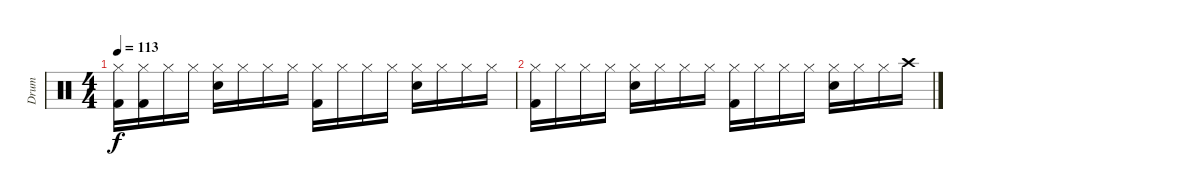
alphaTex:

\track ("Drum" "Drum") {instrument percussion}
\staff {score}
\articulation defaults
\ts (4 4)
\tempo 113
\clef neutral
\ks c
("Hi-Hat (closed)" "Kick (hit) 2").16{dy f} ("Hi-Hat (closed)" "Kick (hit) 2").16 "Hi-Hat (closed)".16 "Hi-Hat (closed)".16 ("Hi-Hat (closed)" "Snare (hit) 2").16 "Hi-Hat (closed)".16 "Hi-Hat (closed)".16 "Hi-Hat (closed)".16 ("Hi-Hat (closed)" "Kick (hit) 2").16 "Hi-Hat (closed)".16 "Hi-Hat (closed)".16 "Hi-Hat (closed)".16 ("Hi-Hat (closed)" "Snare (hit) 2").16 "Hi-Hat (closed)".16 "Hi-Hat (closed)".16 "Hi-Hat (closed)".16 |
("Hi-Hat (closed)" "Kick (hit) 2").16 "Hi-Hat (closed)".16 "Hi-Hat (closed)".16 "Hi-Hat (closed)".16 ("Hi-Hat (closed)" "Snare (hit) 2").16 "Hi-Hat (closed)".16 "Hi-Hat (closed)".16 "Hi-Hat (closed)".16 ("Hi-Hat (closed)" "Kick (hit) 2").16 "Hi-Hat (closed)".16 "Hi-Hat (closed)".16 "Hi-Hat (closed)".16 ("Hi-Hat (closed)" "Snare (hit) 2").16 "Hi-Hat (closed)".16 "Hi-Hat (closed)".16 "Crash high (hit)".16
